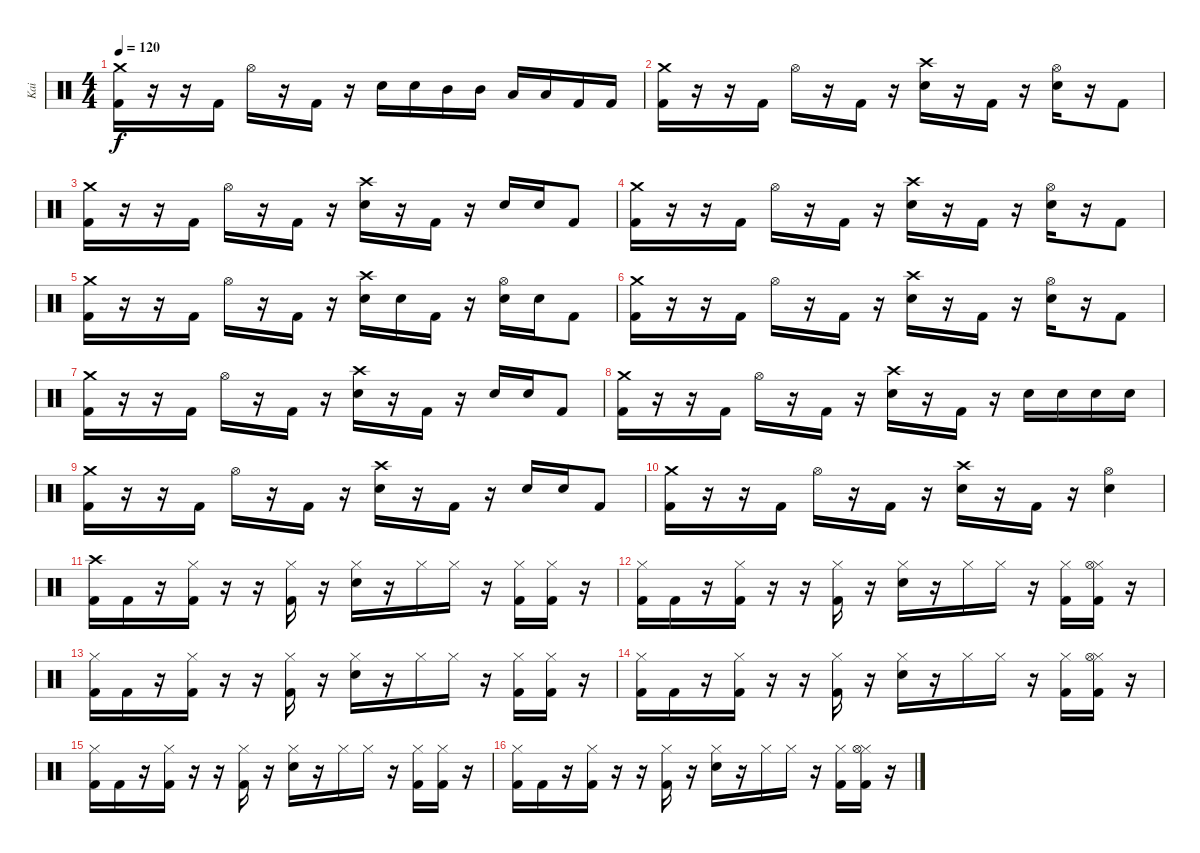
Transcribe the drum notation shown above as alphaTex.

\track ("Kai" "Kai") {instrument percussion}
\staff {score}
\articulation defaults
\ts (4 4)
\tempo 120
\clef neutral
\ks c
("Crash medium (hit)" "Kick (hit) 2").16{dy f} r.16 r.16 "Kick (hit) 2".16 "Hi-Hat (open)".16 r.16 "Kick (hit) 2".16 r.16 "Electric Snare (hit)".16 "Electric Snare (hit)".16 "Mid Tom (hit)".16 "Mid Tom (hit)".16 "Low Tom (hit)".16 "Low Tom (hit)".16 "Kick (hit) 2".16 "Kick (hit) 2".16 |
("Crash medium (hit)" "Kick (hit) 2").16 r.16 r.16 "Kick (hit) 2".16 "Hi-Hat (open)".16 r.16 "Kick (hit) 2".16 r.16 ("Crash high (hit)" "Electric Snare (hit)").16 r.16 "Kick (hit) 2".16 r.16 ("Hi-Hat (open)" "Electric Snare (hit)").16 r.16 "Kick (hit) 2".8 |
("Crash medium (hit)" "Kick (hit) 2").16 r.16 r.16 "Kick (hit) 2".16 "Hi-Hat (open)".16 r.16 "Kick (hit) 2".16 r.16 ("Crash high (hit)" "Electric Snare (hit)").16 r.16 "Kick (hit) 2".16 r.16 "Electric Snare (hit)".16 "Electric Snare (hit)".16 "Kick (hit) 2".8 |
("Crash medium (hit)" "Kick (hit) 2").16 r.16 r.16 "Kick (hit) 2".16 "Hi-Hat (open)".16 r.16 "Kick (hit) 2".16 r.16 ("Crash high (hit)" "Electric Snare (hit)").16 r.16 "Kick (hit) 2".16 r.16 ("Hi-Hat (open)" "Electric Snare (hit)").16 r.16 "Kick (hit) 2".8 |
("Crash medium (hit)" "Kick (hit) 2").16 r.16 r.16 "Kick (hit) 2".16 "Hi-Hat (open)".16 r.16 "Kick (hit) 2".16 r.16 ("Crash high (hit)" "Electric Snare (hit)").16 "Electric Snare (hit)".16 "Kick (hit) 2".16 r.16 ("Hi-Hat (open)" "Electric Snare (hit)").16 "Electric Snare (hit)".16 "Kick (hit) 2".8 |
("Crash medium (hit)" "Kick (hit) 2").16 r.16 r.16 "Kick (hit) 2".16 "Hi-Hat (open)".16 r.16 "Kick (hit) 2".16 r.16 ("Crash high (hit)" "Electric Snare (hit)").16 r.16 "Kick (hit) 2".16 r.16 ("Hi-Hat (open)" "Electric Snare (hit)").16 r.16 "Kick (hit) 2".8 |
("Crash medium (hit)" "Kick (hit) 2").16 r.16 r.16 "Kick (hit) 2".16 "Hi-Hat (open)".16 r.16 "Kick (hit) 2".16 r.16 ("Crash high (hit)" "Electric Snare (hit)").16 r.16 "Kick (hit) 2".16 r.16 "Electric Snare (hit)".16 "Electric Snare (hit)".16 "Kick (hit) 2".8 |
("Crash medium (hit)" "Kick (hit) 2").16 r.16 r.16 "Kick (hit) 2".16 "Hi-Hat (open)".16 r.16 "Kick (hit) 2".16 r.16 ("Crash high (hit)" "Electric Snare (hit)").16 r.16 "Kick (hit) 2".16 r.16 "Electric Snare (hit)".16 "Electric Snare (hit)".16 "Electric Snare (hit)".16 "Electric Snare (hit)".16 |
("Crash medium (hit)" "Kick (hit) 2").16 r.16 r.16 "Kick (hit) 2".16 "Hi-Hat (open)".16 r.16 "Kick (hit) 2".16 r.16 ("Crash high (hit)" "Electric Snare (hit)").16 r.16 "Kick (hit) 2".16 r.16 "Electric Snare (hit)".16 "Electric Snare (hit)".16 "Kick (hit) 2".8 |
("Crash medium (hit)" "Kick (hit) 2").16 r.16 r.16 "Kick (hit) 2".16 "Hi-Hat (open)".16 r.16 "Kick (hit) 2".16 r.16 ("Crash high (hit)" "Electric Snare (hit)").16 r.16 "Kick (hit) 2".16 r.16 ("Hi-Hat (open)" "Electric Snare (hit)").4 |
("Crash high (hit)" "Kick (hit) 2").16 "Kick (hit) 2".16 r.16 ("Hi-Hat (closed)" "Kick (hit) 2").16 r.16 r.16 ("Hi-Hat (closed)" "Kick (hit) 2").16 r.16 ("Hi-Hat (closed)" "Electric Snare (hit)").16 r.16 "Hi-Hat (closed)".16 "Hi-Hat (closed)".16 r.16 ("Hi-Hat (closed)" "Kick (hit) 2").16 ("Hi-Hat (closed)" "Kick (hit) 2").16 r.16 |
("Hi-Hat (closed)" "Kick (hit) 2").16 "Kick (hit) 2".16 r.16 ("Hi-Hat (closed)" "Kick (hit) 2").16 r.16 r.16 ("Hi-Hat (closed)" "Kick (hit) 2").16 r.16 ("Hi-Hat (closed)" "Electric Snare (hit)").16 r.16 "Hi-Hat (closed)".16 "Hi-Hat (closed)".16 r.16 ("Hi-Hat (closed)" "Kick (hit) 2").16 ("Hi-Hat (closed)" "Hi-Hat (open)" "Kick (hit) 2").16 r.16 |
("Hi-Hat (closed)" "Kick (hit) 2").16 "Kick (hit) 2".16 r.16 ("Hi-Hat (closed)" "Kick (hit) 2").16 r.16 r.16 ("Hi-Hat (closed)" "Kick (hit) 2").16 r.16 ("Hi-Hat (closed)" "Electric Snare (hit)").16 r.16 "Hi-Hat (closed)".16 "Hi-Hat (closed)".16 r.16 ("Hi-Hat (closed)" "Kick (hit) 2").16 ("Hi-Hat (closed)" "Kick (hit) 2").16 r.16 |
("Hi-Hat (closed)" "Kick (hit) 2").16 "Kick (hit) 2".16 r.16 ("Hi-Hat (closed)" "Kick (hit) 2").16 r.16 r.16 ("Hi-Hat (closed)" "Kick (hit) 2").16 r.16 ("Hi-Hat (closed)" "Electric Snare (hit)").16 r.16 "Hi-Hat (closed)".16 "Hi-Hat (closed)".16 r.16 ("Hi-Hat (closed)" "Kick (hit) 2").16 ("Hi-Hat (closed)" "Hi-Hat (open)" "Kick (hit) 2").16 r.16 |
("Hi-Hat (closed)" "Kick (hit) 2").16 "Kick (hit) 2".16 r.16 ("Hi-Hat (closed)" "Kick (hit) 2").16 r.16 r.16 ("Hi-Hat (closed)" "Kick (hit) 2").16 r.16 ("Hi-Hat (closed)" "Electric Snare (hit)").16 r.16 "Hi-Hat (closed)".16 "Hi-Hat (closed)".16 r.16 ("Hi-Hat (closed)" "Kick (hit) 2").16 ("Hi-Hat (closed)" "Kick (hit) 2").16 r.16 |
("Hi-Hat (closed)" "Kick (hit) 2").16 "Kick (hit) 2".16 r.16 ("Hi-Hat (closed)" "Kick (hit) 2").16 r.16 r.16 ("Hi-Hat (closed)" "Kick (hit) 2").16 r.16 ("Hi-Hat (closed)" "Electric Snare (hit)").16 r.16 "Hi-Hat (closed)".16 "Hi-Hat (closed)".16 r.16 ("Hi-Hat (closed)" "Kick (hit) 2").16 ("Hi-Hat (closed)" "Hi-Hat (open)" "Kick (hit) 2").16 r.16
